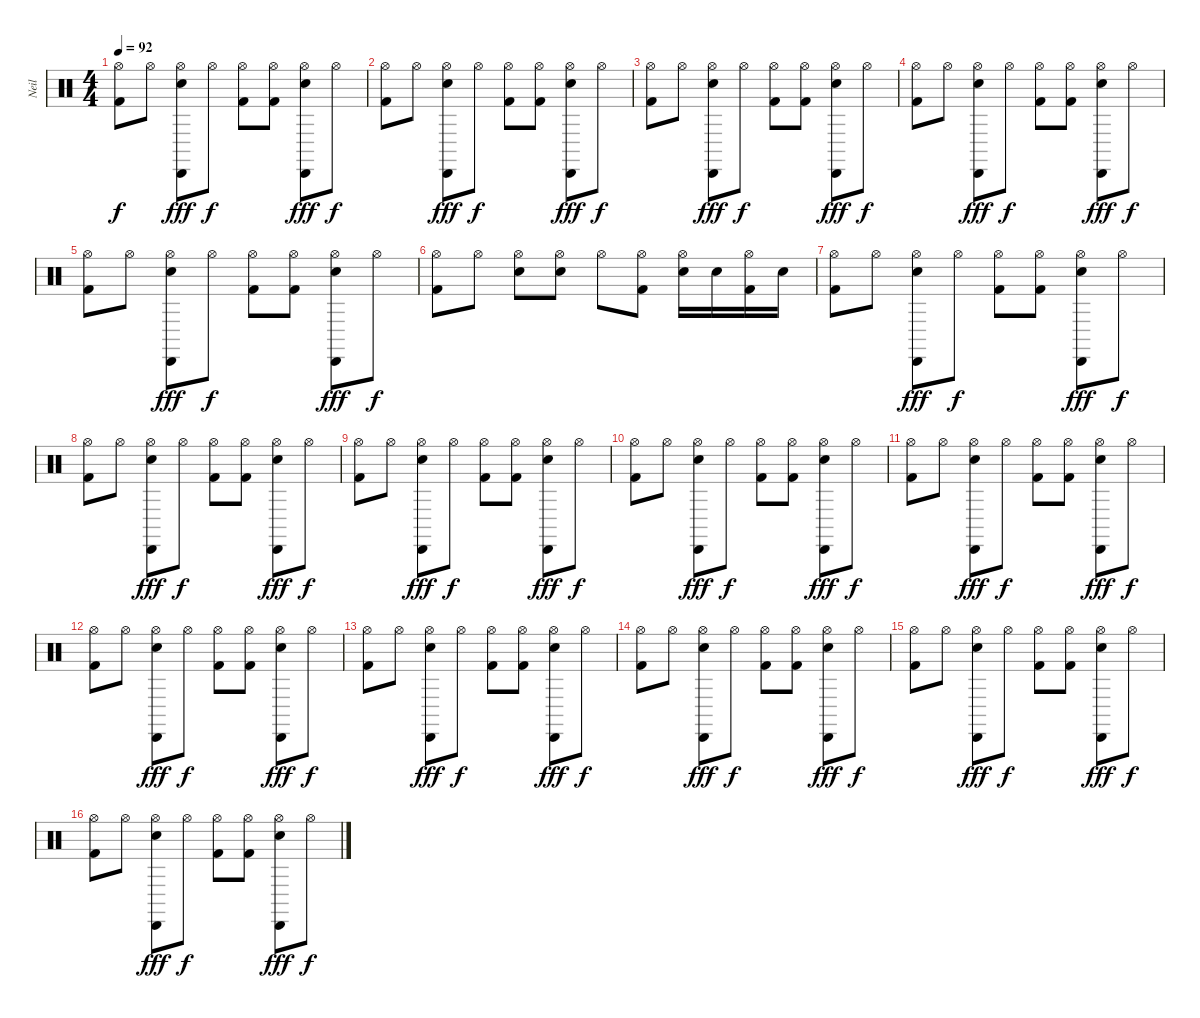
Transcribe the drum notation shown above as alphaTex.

\track ("Neil" "Neil") {instrument percussion}
\staff {score}
\articulation defaults
\ts (4 4)
\tempo 92
\clef neutral
\ks c
("Hi-Hat (open)" "Kick (hit) 2").8{dy f} "Hi-Hat (open)".8 ("Hi-Hat (open)" "Cabasa (hit)" "Electric Snare (hit)").8{dy fff} "Hi-Hat (open)".8{dy f} ("Hi-Hat (open)" "Kick (hit) 2").8 ("Hi-Hat (open)" "Kick (hit) 2").8 ("Hi-Hat (open)" "Cabasa (hit)" "Electric Snare (hit)").8{dy fff} "Hi-Hat (open)".8{dy f} |
("Hi-Hat (open)" "Kick (hit) 2").8 "Hi-Hat (open)".8 ("Hi-Hat (open)" "Cabasa (hit)" "Electric Snare (hit)").8{dy fff} "Hi-Hat (open)".8{dy f} ("Hi-Hat (open)" "Kick (hit) 2").8 ("Hi-Hat (open)" "Kick (hit) 2").8 ("Hi-Hat (open)" "Cabasa (hit)" "Electric Snare (hit)").8{dy fff} "Hi-Hat (open)".8{dy f} |
("Hi-Hat (open)" "Kick (hit) 2").8 "Hi-Hat (open)".8 ("Hi-Hat (open)" "Cabasa (hit)" "Electric Snare (hit)").8{dy fff} "Hi-Hat (open)".8{dy f} ("Hi-Hat (open)" "Kick (hit) 2").8 ("Hi-Hat (open)" "Kick (hit) 2").8 ("Hi-Hat (open)" "Cabasa (hit)" "Electric Snare (hit)").8{dy fff} "Hi-Hat (open)".8{dy f} |
("Hi-Hat (open)" "Kick (hit) 2").8 "Hi-Hat (open)".8 ("Hi-Hat (open)" "Cabasa (hit)" "Electric Snare (hit)").8{dy fff} "Hi-Hat (open)".8{dy f} ("Hi-Hat (open)" "Kick (hit) 2").8 ("Hi-Hat (open)" "Kick (hit) 2").8 ("Hi-Hat (open)" "Cabasa (hit)" "Electric Snare (hit)").8{dy fff} "Hi-Hat (open)".8{dy f} |
("Hi-Hat (open)" "Kick (hit) 2").8 "Hi-Hat (open)".8 ("Hi-Hat (open)" "Cabasa (hit)" "Electric Snare (hit)").8{dy fff} "Hi-Hat (open)".8{dy f} ("Hi-Hat (open)" "Kick (hit) 2").8 ("Hi-Hat (open)" "Kick (hit) 2").8 ("Hi-Hat (open)" "Cabasa (hit)" "Electric Snare (hit)").8{dy fff} "Hi-Hat (open)".8{dy f} |
("Hi-Hat (open)" "Kick (hit) 2").8 "Hi-Hat (open)".8 ("Hi-Hat (open)" "Electric Snare (hit)").8 ("Hi-Hat (open)" "Electric Snare (hit)").8 "Hi-Hat (open)".8 ("Hi-Hat (open)" "Kick (hit) 2").8 ("Hi-Hat (open)" "Electric Snare (hit)").16 "Electric Snare (hit)".16 ("Hi-Hat (open)" "Kick (hit) 2").16 "Electric Snare (hit)".16 |
("Hi-Hat (open)" "Kick (hit) 2").8 "Hi-Hat (open)".8 ("Hi-Hat (open)" "Cabasa (hit)" "Electric Snare (hit)").8{dy fff} "Hi-Hat (open)".8{dy f} ("Hi-Hat (open)" "Kick (hit) 2").8 ("Hi-Hat (open)" "Kick (hit) 2").8 ("Hi-Hat (open)" "Cabasa (hit)" "Electric Snare (hit)").8{dy fff} "Hi-Hat (open)".8{dy f} |
("Hi-Hat (open)" "Kick (hit) 2").8 "Hi-Hat (open)".8 ("Hi-Hat (open)" "Cabasa (hit)" "Electric Snare (hit)").8{dy fff} "Hi-Hat (open)".8{dy f} ("Hi-Hat (open)" "Kick (hit) 2").8 ("Hi-Hat (open)" "Kick (hit) 2").8 ("Hi-Hat (open)" "Cabasa (hit)" "Electric Snare (hit)").8{dy fff} "Hi-Hat (open)".8{dy f} |
("Hi-Hat (open)" "Kick (hit) 2").8 "Hi-Hat (open)".8 ("Hi-Hat (open)" "Cabasa (hit)" "Electric Snare (hit)").8{dy fff} "Hi-Hat (open)".8{dy f} ("Hi-Hat (open)" "Kick (hit) 2").8 ("Hi-Hat (open)" "Kick (hit) 2").8 ("Hi-Hat (open)" "Cabasa (hit)" "Electric Snare (hit)").8{dy fff} "Hi-Hat (open)".8{dy f} |
("Hi-Hat (open)" "Kick (hit) 2").8 "Hi-Hat (open)".8 ("Hi-Hat (open)" "Cabasa (hit)" "Electric Snare (hit)").8{dy fff} "Hi-Hat (open)".8{dy f} ("Hi-Hat (open)" "Kick (hit) 2").8 ("Hi-Hat (open)" "Kick (hit) 2").8 ("Hi-Hat (open)" "Cabasa (hit)" "Electric Snare (hit)").8{dy fff} "Hi-Hat (open)".8{dy f} |
("Hi-Hat (open)" "Kick (hit) 2").8 "Hi-Hat (open)".8 ("Hi-Hat (open)" "Cabasa (hit)" "Electric Snare (hit)").8{dy fff} "Hi-Hat (open)".8{dy f} ("Hi-Hat (open)" "Kick (hit) 2").8 ("Hi-Hat (open)" "Kick (hit) 2").8 ("Hi-Hat (open)" "Cabasa (hit)" "Electric Snare (hit)").8{dy fff} "Hi-Hat (open)".8{dy f} |
("Hi-Hat (open)" "Kick (hit) 2").8 "Hi-Hat (open)".8 ("Hi-Hat (open)" "Cabasa (hit)" "Electric Snare (hit)").8{dy fff} "Hi-Hat (open)".8{dy f} ("Hi-Hat (open)" "Kick (hit) 2").8 ("Hi-Hat (open)" "Kick (hit) 2").8 ("Hi-Hat (open)" "Cabasa (hit)" "Electric Snare (hit)").8{dy fff} "Hi-Hat (open)".8{dy f} |
("Hi-Hat (open)" "Kick (hit) 2").8 "Hi-Hat (open)".8 ("Hi-Hat (open)" "Cabasa (hit)" "Electric Snare (hit)").8{dy fff} "Hi-Hat (open)".8{dy f} ("Hi-Hat (open)" "Kick (hit) 2").8 ("Hi-Hat (open)" "Kick (hit) 2").8 ("Hi-Hat (open)" "Cabasa (hit)" "Electric Snare (hit)").8{dy fff} "Hi-Hat (open)".8{dy f} |
("Hi-Hat (open)" "Kick (hit) 2").8 "Hi-Hat (open)".8 ("Hi-Hat (open)" "Cabasa (hit)" "Electric Snare (hit)").8{dy fff} "Hi-Hat (open)".8{dy f} ("Hi-Hat (open)" "Kick (hit) 2").8 ("Hi-Hat (open)" "Kick (hit) 2").8 ("Hi-Hat (open)" "Cabasa (hit)" "Electric Snare (hit)").8{dy fff} "Hi-Hat (open)".8{dy f} |
("Hi-Hat (open)" "Kick (hit) 2").8 "Hi-Hat (open)".8 ("Hi-Hat (open)" "Cabasa (hit)" "Electric Snare (hit)").8{dy fff} "Hi-Hat (open)".8{dy f} ("Hi-Hat (open)" "Kick (hit) 2").8 ("Hi-Hat (open)" "Kick (hit) 2").8 ("Hi-Hat (open)" "Cabasa (hit)" "Electric Snare (hit)").8{dy fff} "Hi-Hat (open)".8{dy f} |
("Hi-Hat (open)" "Kick (hit) 2").8 "Hi-Hat (open)".8 ("Hi-Hat (open)" "Cabasa (hit)" "Electric Snare (hit)").8{dy fff} "Hi-Hat (open)".8{dy f} ("Hi-Hat (open)" "Kick (hit) 2").8 ("Hi-Hat (open)" "Kick (hit) 2").8 ("Hi-Hat (open)" "Cabasa (hit)" "Electric Snare (hit)").8{dy fff} "Hi-Hat (open)".8{dy f}
